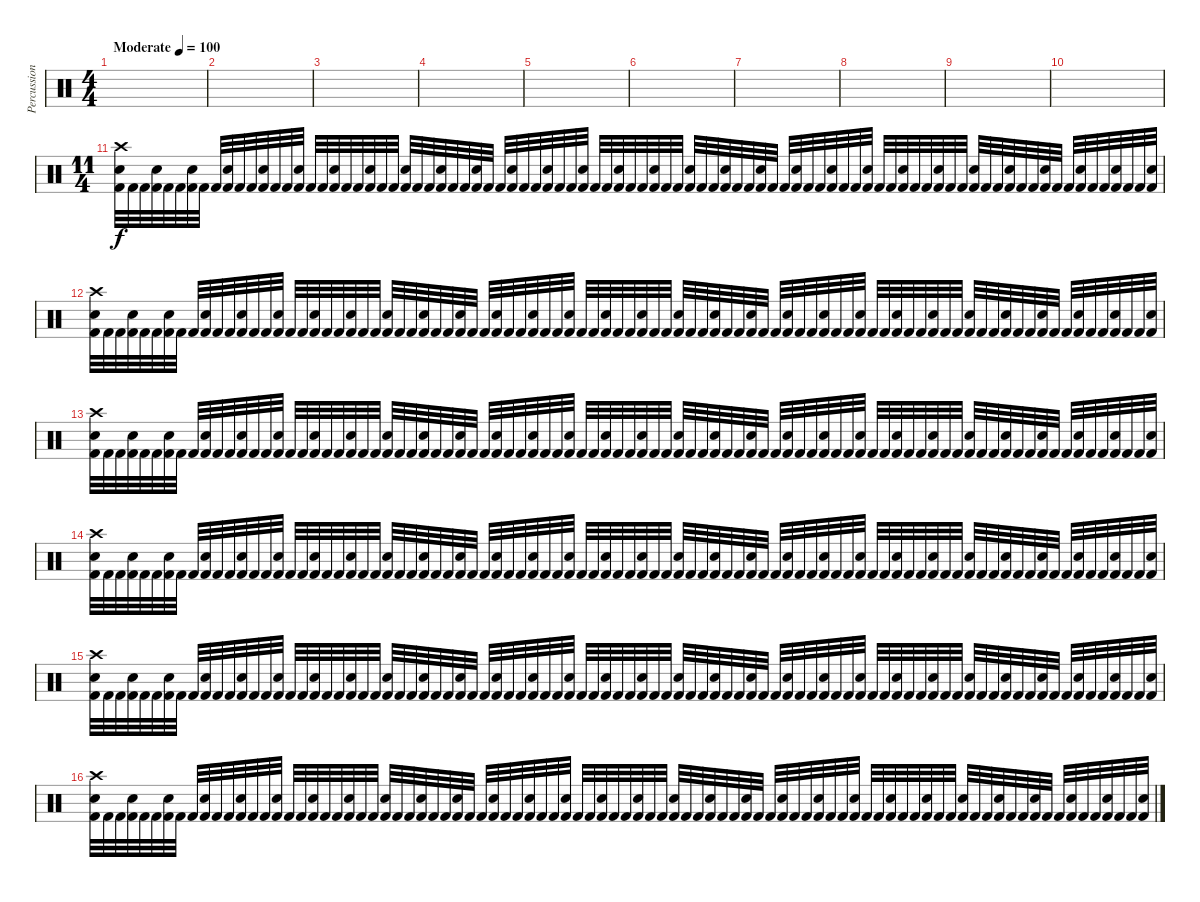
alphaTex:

\track ("Percussion" "Percussion") {instrument percussion}
\staff {score}
\articulation defaults
\ts (4 4)
\tempo (100 "Moderate")
\clef neutral
\ks c
|
|
|
|
|
|
|
|
|
|
\ts (11 4)
("Crash high (hit)" "Snare (hit) 2" "Kick (hit) 2").32 "Kick (hit) 2".32 "Kick (hit) 2".32 ("Snare (hit) 2" "Kick (hit) 2").32 "Kick (hit) 2".32 "Kick (hit) 2".32 ("Snare (hit) 2" "Kick (hit) 2").32 "Kick (hit) 2".32 "Kick (hit) 2".32 ("Snare (hit) 2" "Kick (hit) 2").32 "Kick (hit) 2".32 "Kick (hit) 2".32 ("Snare (hit) 2" "Kick (hit) 2").32 "Kick (hit) 2".32 "Kick (hit) 2".32 ("Snare (hit) 2" "Kick (hit) 2").32 "Kick (hit) 2".32 "Kick (hit) 2".32 ("Snare (hit) 2" "Kick (hit) 2").32 "Kick (hit) 2".32 "Kick (hit) 2".32 ("Snare (hit) 2" "Kick (hit) 2").32 "Kick (hit) 2".32 "Kick (hit) 2".32 ("Snare (hit) 2" "Kick (hit) 2").32 "Kick (hit) 2".32 "Kick (hit) 2".32 ("Snare (hit) 2" "Kick (hit) 2").32 "Kick (hit) 2".32 "Kick (hit) 2".32 ("Snare (hit) 2" "Kick (hit) 2").32 "Kick (hit) 2".32 "Kick (hit) 2".32 ("Snare (hit) 2" "Kick (hit) 2").32 "Kick (hit) 2".32 "Kick (hit) 2".32 ("Snare (hit) 2" "Kick (hit) 2").32 "Kick (hit) 2".32 "Kick (hit) 2".32 ("Snare (hit) 2" "Kick (hit) 2").32 "Kick (hit) 2".32 "Kick (hit) 2".32 ("Snare (hit) 2" "Kick (hit) 2").32 "Kick (hit) 2".32 "Kick (hit) 2".32 ("Snare (hit) 2" "Kick (hit) 2").32 "Kick (hit) 2".32 "Kick (hit) 2".32 ("Snare (hit) 2" "Kick (hit) 2").32 "Kick (hit) 2".32 "Kick (hit) 2".32 ("Snare (hit) 2" "Kick (hit) 2").32 "Kick (hit) 2".32 "Kick (hit) 2".32 ("Snare (hit) 2" "Kick (hit) 2").32 "Kick (hit) 2".32 "Kick (hit) 2".32 ("Snare (hit) 2" "Kick (hit) 2").32 "Kick (hit) 2".32 "Kick (hit) 2".32 ("Snare (hit) 2" "Kick (hit) 2").32 "Kick (hit) 2".32 "Kick (hit) 2".32 ("Snare (hit) 2" "Kick (hit) 2").32 "Kick (hit) 2".32 "Kick (hit) 2".32 ("Snare (hit) 2" "Kick (hit) 2").32 "Kick (hit) 2".32 "Kick (hit) 2".32 ("Snare (hit) 2" "Kick (hit) 2").32 "Kick (hit) 2".32 "Kick (hit) 2".32 ("Snare (hit) 2" "Kick (hit) 2").32 "Kick (hit) 2".32 "Kick (hit) 2".32 ("Snare (hit) 2" "Kick (hit) 2").32 "Kick (hit) 2".32 "Kick (hit) 2".32 ("Snare (hit) 2" "Kick (hit) 2").32 "Kick (hit) 2".32 "Kick (hit) 2".32 ("Snare (hit) 2" "Kick (hit) 2").32 "Kick (hit) 2".32 "Kick (hit) 2".32 ("Snare (hit) 2" "Kick (hit) 2").32 "Kick (hit) 2".32 "Kick (hit) 2".32 ("Snare (hit) 2" "Kick (hit) 2").32 |
("Crash high (hit)" "Snare (hit) 2" "Kick (hit) 2").32 "Kick (hit) 2".32 "Kick (hit) 2".32 ("Snare (hit) 2" "Kick (hit) 2").32 "Kick (hit) 2".32 "Kick (hit) 2".32 ("Snare (hit) 2" "Kick (hit) 2").32 "Kick (hit) 2".32 "Kick (hit) 2".32 ("Snare (hit) 2" "Kick (hit) 2").32 "Kick (hit) 2".32 "Kick (hit) 2".32 ("Snare (hit) 2" "Kick (hit) 2").32 "Kick (hit) 2".32 "Kick (hit) 2".32 ("Snare (hit) 2" "Kick (hit) 2").32 "Kick (hit) 2".32 "Kick (hit) 2".32 ("Snare (hit) 2" "Kick (hit) 2").32 "Kick (hit) 2".32 "Kick (hit) 2".32 ("Snare (hit) 2" "Kick (hit) 2").32 "Kick (hit) 2".32 "Kick (hit) 2".32 ("Snare (hit) 2" "Kick (hit) 2").32 "Kick (hit) 2".32 "Kick (hit) 2".32 ("Snare (hit) 2" "Kick (hit) 2").32 "Kick (hit) 2".32 "Kick (hit) 2".32 ("Snare (hit) 2" "Kick (hit) 2").32 "Kick (hit) 2".32 "Kick (hit) 2".32 ("Snare (hit) 2" "Kick (hit) 2").32 "Kick (hit) 2".32 "Kick (hit) 2".32 ("Snare (hit) 2" "Kick (hit) 2").32 "Kick (hit) 2".32 "Kick (hit) 2".32 ("Snare (hit) 2" "Kick (hit) 2").32 "Kick (hit) 2".32 "Kick (hit) 2".32 ("Snare (hit) 2" "Kick (hit) 2").32 "Kick (hit) 2".32 "Kick (hit) 2".32 ("Snare (hit) 2" "Kick (hit) 2").32 "Kick (hit) 2".32 "Kick (hit) 2".32 ("Snare (hit) 2" "Kick (hit) 2").32 "Kick (hit) 2".32 "Kick (hit) 2".32 ("Snare (hit) 2" "Kick (hit) 2").32 "Kick (hit) 2".32 "Kick (hit) 2".32 ("Snare (hit) 2" "Kick (hit) 2").32 "Kick (hit) 2".32 "Kick (hit) 2".32 ("Snare (hit) 2" "Kick (hit) 2").32 "Kick (hit) 2".32 "Kick (hit) 2".32 ("Snare (hit) 2" "Kick (hit) 2").32 "Kick (hit) 2".32 "Kick (hit) 2".32 ("Snare (hit) 2" "Kick (hit) 2").32 "Kick (hit) 2".32 "Kick (hit) 2".32 ("Snare (hit) 2" "Kick (hit) 2").32 "Kick (hit) 2".32 "Kick (hit) 2".32 ("Snare (hit) 2" "Kick (hit) 2").32 "Kick (hit) 2".32 "Kick (hit) 2".32 ("Snare (hit) 2" "Kick (hit) 2").32 "Kick (hit) 2".32 "Kick (hit) 2".32 ("Snare (hit) 2" "Kick (hit) 2").32 "Kick (hit) 2".32 "Kick (hit) 2".32 ("Snare (hit) 2" "Kick (hit) 2").32 "Kick (hit) 2".32 "Kick (hit) 2".32 ("Snare (hit) 2" "Kick (hit) 2").32 "Kick (hit) 2".32 "Kick (hit) 2".32 ("Snare (hit) 2" "Kick (hit) 2").32 "Kick (hit) 2".32 "Kick (hit) 2".32 ("Snare (hit) 2" "Kick (hit) 2").32 |
("Crash high (hit)" "Snare (hit) 2" "Kick (hit) 2").32 "Kick (hit) 2".32 "Kick (hit) 2".32 ("Snare (hit) 2" "Kick (hit) 2").32 "Kick (hit) 2".32 "Kick (hit) 2".32 ("Snare (hit) 2" "Kick (hit) 2").32 "Kick (hit) 2".32 "Kick (hit) 2".32 ("Snare (hit) 2" "Kick (hit) 2").32 "Kick (hit) 2".32 "Kick (hit) 2".32 ("Snare (hit) 2" "Kick (hit) 2").32 "Kick (hit) 2".32 "Kick (hit) 2".32 ("Snare (hit) 2" "Kick (hit) 2").32 "Kick (hit) 2".32 "Kick (hit) 2".32 ("Snare (hit) 2" "Kick (hit) 2").32 "Kick (hit) 2".32 "Kick (hit) 2".32 ("Snare (hit) 2" "Kick (hit) 2").32 "Kick (hit) 2".32 "Kick (hit) 2".32 ("Snare (hit) 2" "Kick (hit) 2").32 "Kick (hit) 2".32 "Kick (hit) 2".32 ("Snare (hit) 2" "Kick (hit) 2").32 "Kick (hit) 2".32 "Kick (hit) 2".32 ("Snare (hit) 2" "Kick (hit) 2").32 "Kick (hit) 2".32 "Kick (hit) 2".32 ("Snare (hit) 2" "Kick (hit) 2").32 "Kick (hit) 2".32 "Kick (hit) 2".32 ("Snare (hit) 2" "Kick (hit) 2").32 "Kick (hit) 2".32 "Kick (hit) 2".32 ("Snare (hit) 2" "Kick (hit) 2").32 "Kick (hit) 2".32 "Kick (hit) 2".32 ("Snare (hit) 2" "Kick (hit) 2").32 "Kick (hit) 2".32 "Kick (hit) 2".32 ("Snare (hit) 2" "Kick (hit) 2").32 "Kick (hit) 2".32 "Kick (hit) 2".32 ("Snare (hit) 2" "Kick (hit) 2").32 "Kick (hit) 2".32 "Kick (hit) 2".32 ("Snare (hit) 2" "Kick (hit) 2").32 "Kick (hit) 2".32 "Kick (hit) 2".32 ("Snare (hit) 2" "Kick (hit) 2").32 "Kick (hit) 2".32 "Kick (hit) 2".32 ("Snare (hit) 2" "Kick (hit) 2").32 "Kick (hit) 2".32 "Kick (hit) 2".32 ("Snare (hit) 2" "Kick (hit) 2").32 "Kick (hit) 2".32 "Kick (hit) 2".32 ("Snare (hit) 2" "Kick (hit) 2").32 "Kick (hit) 2".32 "Kick (hit) 2".32 ("Snare (hit) 2" "Kick (hit) 2").32 "Kick (hit) 2".32 "Kick (hit) 2".32 ("Snare (hit) 2" "Kick (hit) 2").32 "Kick (hit) 2".32 "Kick (hit) 2".32 ("Snare (hit) 2" "Kick (hit) 2").32 "Kick (hit) 2".32 "Kick (hit) 2".32 ("Snare (hit) 2" "Kick (hit) 2").32 "Kick (hit) 2".32 "Kick (hit) 2".32 ("Snare (hit) 2" "Kick (hit) 2").32 "Kick (hit) 2".32 "Kick (hit) 2".32 ("Snare (hit) 2" "Kick (hit) 2").32 "Kick (hit) 2".32 "Kick (hit) 2".32 ("Snare (hit) 2" "Kick (hit) 2").32 "Kick (hit) 2".32 "Kick (hit) 2".32 ("Snare (hit) 2" "Kick (hit) 2").32 |
("Crash high (hit)" "Snare (hit) 2" "Kick (hit) 2").32 "Kick (hit) 2".32 "Kick (hit) 2".32 ("Snare (hit) 2" "Kick (hit) 2").32 "Kick (hit) 2".32 "Kick (hit) 2".32 ("Snare (hit) 2" "Kick (hit) 2").32 "Kick (hit) 2".32 "Kick (hit) 2".32 ("Snare (hit) 2" "Kick (hit) 2").32 "Kick (hit) 2".32 "Kick (hit) 2".32 ("Snare (hit) 2" "Kick (hit) 2").32 "Kick (hit) 2".32 "Kick (hit) 2".32 ("Snare (hit) 2" "Kick (hit) 2").32 "Kick (hit) 2".32 "Kick (hit) 2".32 ("Snare (hit) 2" "Kick (hit) 2").32 "Kick (hit) 2".32 "Kick (hit) 2".32 ("Snare (hit) 2" "Kick (hit) 2").32 "Kick (hit) 2".32 "Kick (hit) 2".32 ("Snare (hit) 2" "Kick (hit) 2").32 "Kick (hit) 2".32 "Kick (hit) 2".32 ("Snare (hit) 2" "Kick (hit) 2").32 "Kick (hit) 2".32 "Kick (hit) 2".32 ("Snare (hit) 2" "Kick (hit) 2").32 "Kick (hit) 2".32 "Kick (hit) 2".32 ("Snare (hit) 2" "Kick (hit) 2").32 "Kick (hit) 2".32 "Kick (hit) 2".32 ("Snare (hit) 2" "Kick (hit) 2").32 "Kick (hit) 2".32 "Kick (hit) 2".32 ("Snare (hit) 2" "Kick (hit) 2").32 "Kick (hit) 2".32 "Kick (hit) 2".32 ("Snare (hit) 2" "Kick (hit) 2").32 "Kick (hit) 2".32 "Kick (hit) 2".32 ("Snare (hit) 2" "Kick (hit) 2").32 "Kick (hit) 2".32 "Kick (hit) 2".32 ("Snare (hit) 2" "Kick (hit) 2").32 "Kick (hit) 2".32 "Kick (hit) 2".32 ("Snare (hit) 2" "Kick (hit) 2").32 "Kick (hit) 2".32 "Kick (hit) 2".32 ("Snare (hit) 2" "Kick (hit) 2").32 "Kick (hit) 2".32 "Kick (hit) 2".32 ("Snare (hit) 2" "Kick (hit) 2").32 "Kick (hit) 2".32 "Kick (hit) 2".32 ("Snare (hit) 2" "Kick (hit) 2").32 "Kick (hit) 2".32 "Kick (hit) 2".32 ("Snare (hit) 2" "Kick (hit) 2").32 "Kick (hit) 2".32 "Kick (hit) 2".32 ("Snare (hit) 2" "Kick (hit) 2").32 "Kick (hit) 2".32 "Kick (hit) 2".32 ("Snare (hit) 2" "Kick (hit) 2").32 "Kick (hit) 2".32 "Kick (hit) 2".32 ("Snare (hit) 2" "Kick (hit) 2").32 "Kick (hit) 2".32 "Kick (hit) 2".32 ("Snare (hit) 2" "Kick (hit) 2").32 "Kick (hit) 2".32 "Kick (hit) 2".32 ("Snare (hit) 2" "Kick (hit) 2").32 "Kick (hit) 2".32 "Kick (hit) 2".32 ("Snare (hit) 2" "Kick (hit) 2").32 "Kick (hit) 2".32 "Kick (hit) 2".32 ("Snare (hit) 2" "Kick (hit) 2").32 "Kick (hit) 2".32 "Kick (hit) 2".32 ("Snare (hit) 2" "Kick (hit) 2").32 |
("Crash high (hit)" "Snare (hit) 2" "Kick (hit) 2").32 "Kick (hit) 2".32 "Kick (hit) 2".32 ("Snare (hit) 2" "Kick (hit) 2").32 "Kick (hit) 2".32 "Kick (hit) 2".32 ("Snare (hit) 2" "Kick (hit) 2").32 "Kick (hit) 2".32 "Kick (hit) 2".32 ("Snare (hit) 2" "Kick (hit) 2").32 "Kick (hit) 2".32 "Kick (hit) 2".32 ("Snare (hit) 2" "Kick (hit) 2").32 "Kick (hit) 2".32 "Kick (hit) 2".32 ("Snare (hit) 2" "Kick (hit) 2").32 "Kick (hit) 2".32 "Kick (hit) 2".32 ("Snare (hit) 2" "Kick (hit) 2").32 "Kick (hit) 2".32 "Kick (hit) 2".32 ("Snare (hit) 2" "Kick (hit) 2").32 "Kick (hit) 2".32 "Kick (hit) 2".32 ("Snare (hit) 2" "Kick (hit) 2").32 "Kick (hit) 2".32 "Kick (hit) 2".32 ("Snare (hit) 2" "Kick (hit) 2").32 "Kick (hit) 2".32 "Kick (hit) 2".32 ("Snare (hit) 2" "Kick (hit) 2").32 "Kick (hit) 2".32 "Kick (hit) 2".32 ("Snare (hit) 2" "Kick (hit) 2").32 "Kick (hit) 2".32 "Kick (hit) 2".32 ("Snare (hit) 2" "Kick (hit) 2").32 "Kick (hit) 2".32 "Kick (hit) 2".32 ("Snare (hit) 2" "Kick (hit) 2").32 "Kick (hit) 2".32 "Kick (hit) 2".32 ("Snare (hit) 2" "Kick (hit) 2").32 "Kick (hit) 2".32 "Kick (hit) 2".32 ("Snare (hit) 2" "Kick (hit) 2").32 "Kick (hit) 2".32 "Kick (hit) 2".32 ("Snare (hit) 2" "Kick (hit) 2").32 "Kick (hit) 2".32 "Kick (hit) 2".32 ("Snare (hit) 2" "Kick (hit) 2").32 "Kick (hit) 2".32 "Kick (hit) 2".32 ("Snare (hit) 2" "Kick (hit) 2").32 "Kick (hit) 2".32 "Kick (hit) 2".32 ("Snare (hit) 2" "Kick (hit) 2").32 "Kick (hit) 2".32 "Kick (hit) 2".32 ("Snare (hit) 2" "Kick (hit) 2").32 "Kick (hit) 2".32 "Kick (hit) 2".32 ("Snare (hit) 2" "Kick (hit) 2").32 "Kick (hit) 2".32 "Kick (hit) 2".32 ("Snare (hit) 2" "Kick (hit) 2").32 "Kick (hit) 2".32 "Kick (hit) 2".32 ("Snare (hit) 2" "Kick (hit) 2").32 "Kick (hit) 2".32 "Kick (hit) 2".32 ("Snare (hit) 2" "Kick (hit) 2").32 "Kick (hit) 2".32 "Kick (hit) 2".32 ("Snare (hit) 2" "Kick (hit) 2").32 "Kick (hit) 2".32 "Kick (hit) 2".32 ("Snare (hit) 2" "Kick (hit) 2").32 "Kick (hit) 2".32 "Kick (hit) 2".32 ("Snare (hit) 2" "Kick (hit) 2").32 "Kick (hit) 2".32 "Kick (hit) 2".32 ("Snare (hit) 2" "Kick (hit) 2").32 "Kick (hit) 2".32 "Kick (hit) 2".32 ("Snare (hit) 2" "Kick (hit) 2").32 |
("Crash high (hit)" "Snare (hit) 2" "Kick (hit) 2").32 "Kick (hit) 2".32 "Kick (hit) 2".32 ("Snare (hit) 2" "Kick (hit) 2").32 "Kick (hit) 2".32 "Kick (hit) 2".32 ("Snare (hit) 2" "Kick (hit) 2").32 "Kick (hit) 2".32 "Kick (hit) 2".32 ("Snare (hit) 2" "Kick (hit) 2").32 "Kick (hit) 2".32 "Kick (hit) 2".32 ("Snare (hit) 2" "Kick (hit) 2").32 "Kick (hit) 2".32 "Kick (hit) 2".32 ("Snare (hit) 2" "Kick (hit) 2").32 "Kick (hit) 2".32 "Kick (hit) 2".32 ("Snare (hit) 2" "Kick (hit) 2").32 "Kick (hit) 2".32 "Kick (hit) 2".32 ("Snare (hit) 2" "Kick (hit) 2").32 "Kick (hit) 2".32 "Kick (hit) 2".32 ("Snare (hit) 2" "Kick (hit) 2").32 "Kick (hit) 2".32 "Kick (hit) 2".32 ("Snare (hit) 2" "Kick (hit) 2").32 "Kick (hit) 2".32 "Kick (hit) 2".32 ("Snare (hit) 2" "Kick (hit) 2").32 "Kick (hit) 2".32 "Kick (hit) 2".32 ("Snare (hit) 2" "Kick (hit) 2").32 "Kick (hit) 2".32 "Kick (hit) 2".32 ("Snare (hit) 2" "Kick (hit) 2").32 "Kick (hit) 2".32 "Kick (hit) 2".32 ("Snare (hit) 2" "Kick (hit) 2").32 "Kick (hit) 2".32 "Kick (hit) 2".32 ("Snare (hit) 2" "Kick (hit) 2").32 "Kick (hit) 2".32 "Kick (hit) 2".32 ("Snare (hit) 2" "Kick (hit) 2").32 "Kick (hit) 2".32 "Kick (hit) 2".32 ("Snare (hit) 2" "Kick (hit) 2").32 "Kick (hit) 2".32 "Kick (hit) 2".32 ("Snare (hit) 2" "Kick (hit) 2").32 "Kick (hit) 2".32 "Kick (hit) 2".32 ("Snare (hit) 2" "Kick (hit) 2").32 "Kick (hit) 2".32 "Kick (hit) 2".32 ("Snare (hit) 2" "Kick (hit) 2").32 "Kick (hit) 2".32 "Kick (hit) 2".32 ("Snare (hit) 2" "Kick (hit) 2").32 "Kick (hit) 2".32 "Kick (hit) 2".32 ("Snare (hit) 2" "Kick (hit) 2").32 "Kick (hit) 2".32 "Kick (hit) 2".32 ("Snare (hit) 2" "Kick (hit) 2").32 "Kick (hit) 2".32 "Kick (hit) 2".32 ("Snare (hit) 2" "Kick (hit) 2").32 "Kick (hit) 2".32 "Kick (hit) 2".32 ("Snare (hit) 2" "Kick (hit) 2").32 "Kick (hit) 2".32 "Kick (hit) 2".32 ("Snare (hit) 2" "Kick (hit) 2").32 "Kick (hit) 2".32 "Kick (hit) 2".32 ("Snare (hit) 2" "Kick (hit) 2").32 "Kick (hit) 2".32 "Kick (hit) 2".32 ("Snare (hit) 2" "Kick (hit) 2").32 "Kick (hit) 2".32 "Kick (hit) 2".32 ("Snare (hit) 2" "Kick (hit) 2").32 "Kick (hit) 2".32 "Kick (hit) 2".32 ("Snare (hit) 2" "Kick (hit) 2").32
